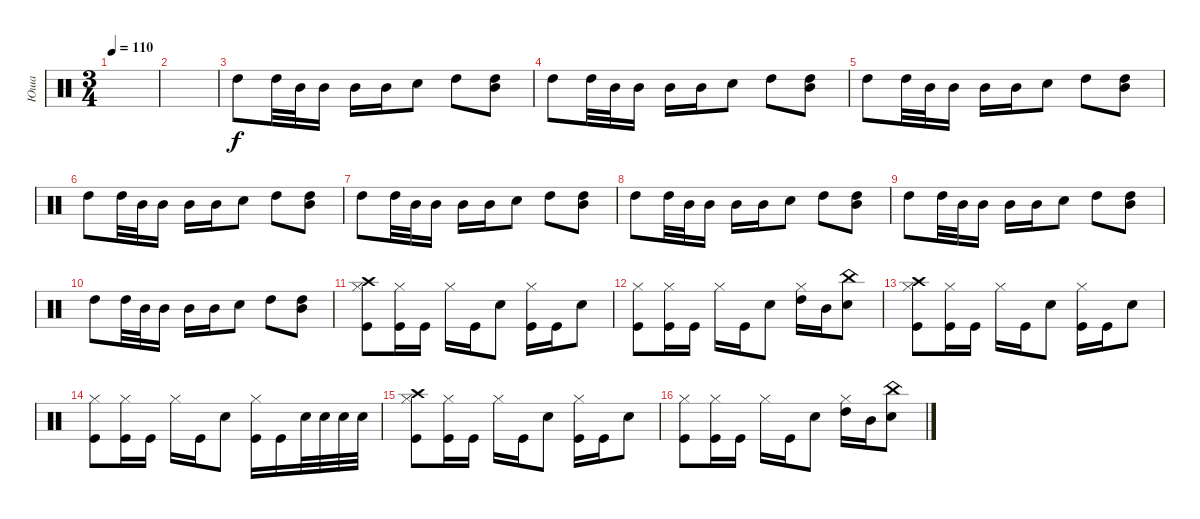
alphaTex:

\track ("Юша" "Юша") {instrument percussion}
\staff {score}
\articulation defaults
\ts (3 4)
\tempo 110
\clef neutral
\ks c
|
|
"High Tom (hit)".8 "High Tom (hit)".32 "Mid Tom (hit)".32 "Mid Tom (hit)".16 "Mid Tom (hit)".16 "Mid Tom (hit)".16 "Snare (hit) 2".8 "High Tom (hit)".8 ("High Tom (hit)" "Mid Tom (hit)").8 |
"High Tom (hit)".8 "High Tom (hit)".32 "Mid Tom (hit)".32 "Mid Tom (hit)".16 "Mid Tom (hit)".16 "Mid Tom (hit)".16 "Snare (hit) 2".8 "High Tom (hit)".8 ("High Tom (hit)" "Mid Tom (hit)").8 |
"High Tom (hit)".8 "High Tom (hit)".32 "Mid Tom (hit)".32 "Mid Tom (hit)".16 "Mid Tom (hit)".16 "Mid Tom (hit)".16 "Snare (hit) 2".8 "High Tom (hit)".8 ("High Tom (hit)" "Mid Tom (hit)").8 |
"High Tom (hit)".8 "High Tom (hit)".32 "Mid Tom (hit)".32 "Mid Tom (hit)".16 "Mid Tom (hit)".16 "Mid Tom (hit)".16 "Snare (hit) 2".8 "High Tom (hit)".8 ("High Tom (hit)" "Mid Tom (hit)").8 |
"High Tom (hit)".8 "High Tom (hit)".32 "Mid Tom (hit)".32 "Mid Tom (hit)".16 "Mid Tom (hit)".16 "Mid Tom (hit)".16 "Snare (hit) 2".8 "High Tom (hit)".8 ("High Tom (hit)" "Mid Tom (hit)").8 |
"High Tom (hit)".8 "High Tom (hit)".32 "Mid Tom (hit)".32 "Mid Tom (hit)".16 "Mid Tom (hit)".16 "Mid Tom (hit)".16 "Snare (hit) 2".8 "High Tom (hit)".8 ("High Tom (hit)" "Mid Tom (hit)").8 |
"High Tom (hit)".8 "High Tom (hit)".32 "Mid Tom (hit)".32 "Mid Tom (hit)".16 "Mid Tom (hit)".16 "Mid Tom (hit)".16 "Snare (hit) 2".8 "High Tom (hit)".8 ("High Tom (hit)" "Mid Tom (hit)").8 |
"High Tom (hit)".8 "High Tom (hit)".32 "Mid Tom (hit)".32 "Mid Tom (hit)".16 "Mid Tom (hit)".16 "Mid Tom (hit)".16 "Snare (hit) 2".8 "High Tom (hit)".8 ("High Tom (hit)" "Mid Tom (hit)").8 |
("Hi-Hat (closed)" "Kick (hit)" "Crash high (hit)").8 ("Kick (hit)" "Hi-Hat (closed)").16 "Kick (hit)".16 "Hi-Hat (closed)".16 "Kick (hit)".16 "Snare (hit) 2".8 ("Kick (hit)" "Hi-Hat (closed)").16 "Kick (hit)".16 "Snare (hit) 2".8 |
("Hi-Hat (closed)" "Kick (hit)").8 ("Kick (hit)" "Hi-Hat (closed)").16 "Kick (hit)".16 "Hi-Hat (closed)".16 "Kick (hit)".16 "Snare (hit) 2".8 ("Hi-Hat (closed)" "High Tom (hit)").16 "Mid Tom (hit)".16 ("Snare (hit) 2" "China (hit)").8 |
("Hi-Hat (closed)" "Kick (hit)" "Crash high (hit)").8 ("Kick (hit)" "Hi-Hat (closed)").16 "Kick (hit)".16 "Hi-Hat (closed)".16 "Kick (hit)".16 "Snare (hit) 2".8 ("Kick (hit)" "Hi-Hat (closed)").16 "Kick (hit)".16 "Snare (hit) 2".8 |
("Hi-Hat (closed)" "Kick (hit)").8 ("Kick (hit)" "Hi-Hat (closed)").16 "Kick (hit)".16 "Hi-Hat (closed)".16 "Kick (hit)".16 "Snare (hit) 2".8 ("Kick (hit)" "Hi-Hat (closed)").16 "Kick (hit)".16 "Snare (hit) 2".32 "Snare (hit) 2".32 "Snare (hit) 2".32 "Snare (hit) 2".32 |
("Hi-Hat (closed)" "Kick (hit)" "Crash high (hit)").8 ("Kick (hit)" "Hi-Hat (closed)").16 "Kick (hit)".16 "Hi-Hat (closed)".16 "Kick (hit)".16 "Snare (hit) 2".8 ("Kick (hit)" "Hi-Hat (closed)").16 "Kick (hit)".16 "Snare (hit) 2".8 |
("Hi-Hat (closed)" "Kick (hit)").8 ("Kick (hit)" "Hi-Hat (closed)").16 "Kick (hit)".16 "Hi-Hat (closed)".16 "Kick (hit)".16 "Snare (hit) 2".8 ("Hi-Hat (closed)" "High Tom (hit)").16 "Mid Tom (hit)".16 ("Snare (hit) 2" "China (hit)").8
